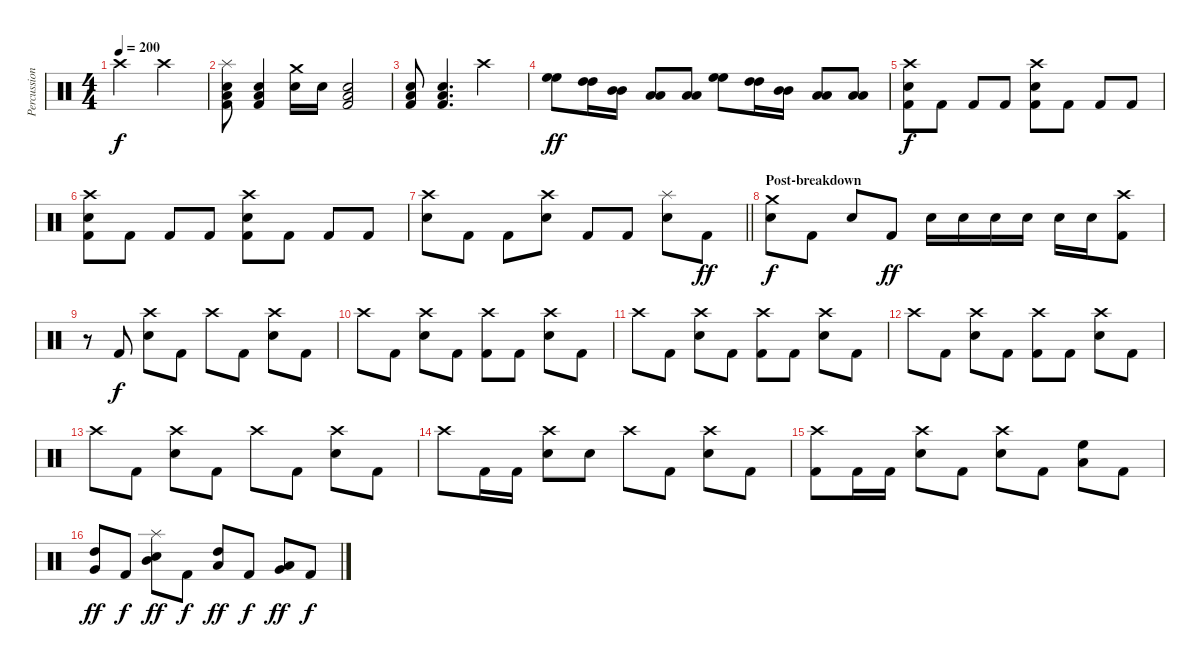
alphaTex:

\track ("Percussion" "Percussion") {instrument percussion}
\staff {score}
\articulation defaults
\ts (4 4)
\tempo 200
\clef neutral
\ks c "Crash high (hit)".2{dy f} "Crash high (hit)".2
|
("Splash (hit)" "Snare (hit) 2" "Low Tom (hit)" "Kick (hit) 2").8 ("Snare (hit) 2" "Low Tom (hit)" "Kick (hit) 2").4 ("Crash medium (hit)" "Snare (hit) 2").16 "Snare (hit) 2".16 ("Snare (hit) 2" "Low Tom (hit)" "Kick (hit) 2").2 |
("Snare (hit) 2" "Low Tom (hit)" "Kick (hit) 2").8 ("Snare (hit) 2" "Low Tom (hit)" "Kick (hit) 2").4{d} "Crash high (hit)".2 |
("High Floor Tom (hit)" "High Floor Tom (hit)").8{dy ff} ("High Tom (hit)" "High Tom (hit)").16 ("Mid Tom (hit)" "Mid Tom (hit)").16 ("Low Tom (hit)" "Low Tom (hit)").8 ("Low Tom (hit)" "Low Tom (hit)").8 ("High Floor Tom (hit)" "High Floor Tom (hit)").8 ("High Tom (hit)" "High Tom (hit)").16 ("Mid Tom (hit)" "Mid Tom (hit)").16 ("Low Tom (hit)" "Low Tom (hit)").8 ("Low Tom (hit)" "Low Tom (hit)").8 |
("Crash high (hit)" "Snare (hit) 2" "Kick (hit) 2").8{dy f} "Kick (hit) 2".8 "Kick (hit) 2".8 "Kick (hit) 2".8 ("Crash high (hit)" "Snare (hit) 2" "Kick (hit) 2").8 "Kick (hit) 2".8 "Kick (hit) 2".8 "Kick (hit) 2".8 |
("Crash high (hit)" "Snare (hit) 2" "Kick (hit) 2").8 "Kick (hit) 2".8 "Kick (hit) 2".8 "Kick (hit) 2".8 ("Crash high (hit)" "Snare (hit) 2" "Kick (hit) 2").8 "Kick (hit) 2".8 "Kick (hit) 2".8 "Kick (hit) 2".8 |
\barLineRight lightlight
("Crash high (hit)" "Snare (hit) 2").8 "Kick (hit) 2".8 "Kick (hit) 2".8 ("Crash high (hit)" "Snare (hit) 2").8 "Kick (hit) 2".8 "Kick (hit) 2".8 ("Splash (hit)" "Snare (hit) 2").8 "Kick (hit) 2".8{dy ff} |
\section ("" "Post-breakdown")
("Crash medium (hit)" "Snare (hit) 2").8{dy f} "Kick (hit) 2".8 "Snare (hit) 2".8 "Kick (hit) 2".8{dy ff} "Snare (hit) 2".16 "Snare (hit) 2".16 "Snare (hit) 2".16 "Snare (hit) 2".16 "Snare (hit) 2".16 "Snare (hit) 2".16 ("Crash high (hit)" "Kick (hit) 2").8 |
r.8 "Kick (hit) 2".8{dy f} ("Crash high (hit)" "Snare (hit) 2").8 "Kick (hit) 2".8 "Crash high (hit)".8 "Kick (hit) 2".8 ("Crash high (hit)" "Snare (hit) 2").8 "Kick (hit) 2".8 |
"Crash high (hit)".8 "Kick (hit) 2".8 ("Crash high (hit)" "Snare (hit) 2").8 "Kick (hit) 2".8 ("Crash high (hit)" "Kick (hit) 2").8 "Kick (hit) 2".8 ("Crash high (hit)" "Snare (hit) 2").8 "Kick (hit) 2".8 |
"Crash high (hit)".8 "Kick (hit) 2".8 ("Crash high (hit)" "Snare (hit) 2").8 "Kick (hit) 2".8 ("Crash high (hit)" "Kick (hit) 2").8 "Kick (hit) 2".8 ("Crash high (hit)" "Snare (hit) 2").8 "Kick (hit) 2".8 |
"Crash high (hit)".8 "Kick (hit) 2".8 ("Crash high (hit)" "Snare (hit) 2").8 "Kick (hit) 2".8 ("Crash high (hit)" "Kick (hit) 2").8 "Kick (hit) 2".8 ("Crash high (hit)" "Snare (hit) 2").8 "Kick (hit) 2".8 |
"Crash high (hit)".8 "Kick (hit) 2".8 ("Crash high (hit)" "Snare (hit) 2").8 "Kick (hit) 2".8 "Crash high (hit)".8 "Kick (hit) 2".8 ("Crash high (hit)" "Snare (hit) 2").8 "Kick (hit) 2".8 |
"Crash high (hit)".8 "Kick (hit) 2".16 "Kick (hit) 2".16 ("Crash high (hit)" "Snare (hit) 2").8 "Snare (hit) 2".8 "Crash high (hit)".8 "Kick (hit) 2".8 ("Crash high (hit)" "Snare (hit) 2").8 "Kick (hit) 2".8 |
("Crash high (hit)" "Kick (hit) 2").8 "Kick (hit) 2".16 "Kick (hit) 2".16 ("Crash high (hit)" "Snare (hit) 2").8 "Kick (hit) 2".8 ("Crash high (hit)" "Snare (hit) 2").8 "Kick (hit) 2".8 ("High Floor Tom (hit)" "Low Tom (hit)").8 "Kick (hit) 2".8 |
("High Tom (hit)" "Very Low Tom (hit)").8{dy ff} "Kick (hit) 2".8{dy f} ("Splash (hit)" "Mid Tom (hit)" "Snare (hit) 2").8{dy ff} "Kick (hit) 2".8{dy f} ("High Tom (hit)" "Low Tom (hit)").8{dy ff} "Kick (hit) 2".8{dy f} ("Low Tom (hit)" "Very Low Tom (hit)").8{dy ff} "Kick (hit) 2".8{dy f}
